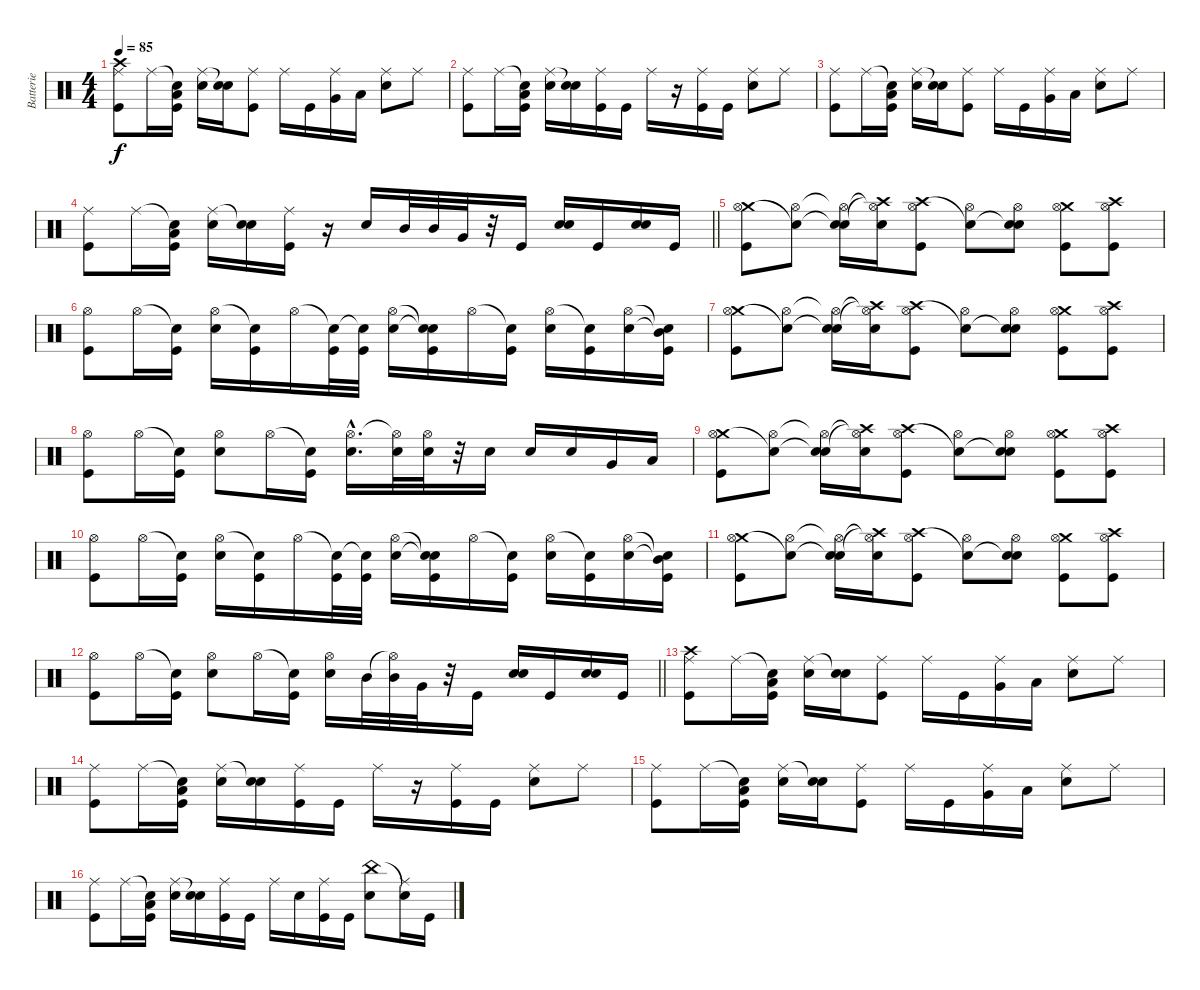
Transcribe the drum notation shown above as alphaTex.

\track ("Batterie" "Batterie") {instrument percussion}
\staff {score}
\articulation defaults
\ts (4 4)
\tempo 85
\clef neutral
\ks c
("Crash high (hit)" "Ride (middle)" "Kick (hit)").8{dy f} "Ride (middle)".16 ("Snare (hit)"{t} "Low Tom (hit)" "Kick (hit)").16 ("Ride (middle)" "Snare (hit) 2").16 ("Snare (hit)"{t} "Snare (hit) 2").16 ("Ride (middle)" "Kick (hit)").8 "Ride (middle)".16 "Kick (hit)".16 ("Ride (middle)" "Very Low Tom (hit)").16 "Low Tom (hit)".16 ("Ride (middle)" "Snare (hit) 2").8 "Ride (middle)".8 |
("Ride (middle)" "Kick (hit)").8 "Ride (middle)".16 ("Snare (hit)"{t} "Low Tom (hit)" "Kick (hit)").16 ("Ride (middle)" "Snare (hit) 2").16 ("Snare (hit)"{t} "Snare (hit) 2").16 ("Ride (middle)" "Kick (hit)").16 "Kick (hit)".16 "Ride (middle)".16 r.16 ("Ride (middle)" "Kick (hit)").16 "Kick (hit)".16 ("Ride (middle)" "Snare (hit) 2").8 "Ride (middle)".8 |
("Ride (middle)" "Kick (hit)").8 "Ride (middle)".16 ("Snare (hit)"{t} "Low Tom (hit)" "Kick (hit)").16 ("Ride (middle)" "Snare (hit) 2").16 ("Snare (hit)"{t} "Snare (hit) 2").16 ("Ride (middle)" "Kick (hit)").8 "Ride (middle)".16 "Kick (hit)".16 ("Ride (middle)" "Very Low Tom (hit)").16 "Low Tom (hit)".16 ("Ride (middle)" "Snare (hit) 2").8 "Ride (middle)".8 |
\barLineRight lightlight
("Ride (middle)" "Kick (hit)").8 "Ride (middle)".16 ("Snare (hit)"{t} "Low Tom (hit)" "Kick (hit)").16 ("Ride (middle)" "Snare (hit) 2").16 ("Snare (hit)"{t} "Snare (hit) 2").16 ("Ride (middle)" "Kick (hit)").16 r.16 "Snare (hit) 2".16 "Mid Tom (hit)".32 "Mid Tom (hit)".32 "Very Low Tom (hit)".32 r.32 "Kick (hit)".16 ("Snare (hit) 2" "Snare (hit) 2").16 "Kick (hit)".16 ("Snare (hit) 2" "Snare (hit) 2").16 "Kick (hit)".16 |
("Crash medium (hit)" "Hi-Hat (open)" "Kick (hit)").8 ("Snare (hit)"{t} "Hi-Hat (open)").8 ("Snare (hit)"{t} "Hi-Hat (open)"{t} "Snare (hit) 2").16 ("Crash high (hit)"{t} "Hi-Hat (open)"{t} "Snare (hit) 2").16 ("Crash high (hit)" "Hi-Hat (open)" "Kick (hit)").8 ("Snare (hit)"{t} "Hi-Hat (open)").8 ("Snare (hit)"{t} "Hi-Hat (open)" "Snare (hit) 2").8 ("Crash medium (hit)" "Hi-Hat (open)" "Kick (hit)").8 ("Crash high (hit)" "Hi-Hat (open)" "Kick (hit)").8 |
("Hi-Hat (open)" "Kick (hit)").8 "Hi-Hat (open)".16 ("Snare (hit)"{t} "Kick (hit)").16 ("Hi-Hat (open)" "Snare (hit) 2").16 ("Snare (hit)"{t} "Kick (hit)").16 "Hi-Hat (open)".16 ("Snare (hit)"{t} "Kick (hit)").32 ("Snare (hit)"{t} "Kick (hit)").32 ("Hi-Hat (open)" "Snare (hit) 2").16 ("Snare (hit)"{t} "Snare (hit)"{t} "Kick (hit)").16 "Hi-Hat (open)".16 ("Snare (hit)"{t} "Kick (hit)").16 ("Hi-Hat (open)" "Snare (hit) 2").16 ("Snare (hit)"{t} "Kick (hit)").16 ("Hi-Hat (open)" "Snare (hit) 2").16 ("Snare (hit)"{t} "Mid Tom (hit)"{t} "Kick (hit)").16 |
("Crash medium (hit)" "Hi-Hat (open)" "Kick (hit)").8 ("Snare (hit)"{t} "Hi-Hat (open)").8 ("Snare (hit)"{t} "Hi-Hat (open)"{t} "Snare (hit) 2").16 ("Crash high (hit)"{t} "Hi-Hat (open)"{t} "Snare (hit) 2").16 ("Crash high (hit)" "Hi-Hat (open)" "Kick (hit)").8 ("Snare (hit)"{t} "Hi-Hat (open)").8 ("Snare (hit)"{t} "Hi-Hat (open)" "Snare (hit) 2").8 ("Crash medium (hit)" "Hi-Hat (open)" "Kick (hit)").8 ("Crash high (hit)" "Hi-Hat (open)" "Kick (hit)").8 |
("Hi-Hat (open)" "Kick (hit)").8 "Hi-Hat (open)".16 ("Snare (hit)"{t} "Kick (hit)").16 ("Hi-Hat (open)" "Snare (hit) 2").8 "Hi-Hat (open)".16 ("Snare (hit)"{t} "Kick (hit)").16 ("Hi-Hat (open)"{hac} "Snare (hit) 2"{hac}).16{d} ("Hi-Hat (open)"{t} "Snare (hit) 2").32 ("Hi-Hat (open)" "Snare (hit) 2").32 r.32 "Snare (hit) 2".16 "Snare (hit) 2".16 "Snare (hit) 2".16 "Very Low Tom (hit)".16 "Low Floor Tom (hit)".16 |
("Crash medium (hit)" "Hi-Hat (open)" "Kick (hit)").8 ("Snare (hit)"{t} "Hi-Hat (open)").8 ("Snare (hit)"{t} "Hi-Hat (open)"{t} "Snare (hit) 2").16 ("Crash high (hit)"{t} "Hi-Hat (open)"{t} "Snare (hit) 2").16 ("Crash high (hit)" "Hi-Hat (open)" "Kick (hit)").8 ("Snare (hit)"{t} "Hi-Hat (open)").8 ("Snare (hit)"{t} "Hi-Hat (open)" "Snare (hit) 2").8 ("Crash medium (hit)" "Hi-Hat (open)" "Kick (hit)").8 ("Crash high (hit)" "Hi-Hat (open)" "Kick (hit)").8 |
("Hi-Hat (open)" "Kick (hit)").8 "Hi-Hat (open)".16 ("Snare (hit)"{t} "Kick (hit)").16 ("Hi-Hat (open)" "Snare (hit) 2").16 ("Snare (hit)"{t} "Kick (hit)").16 "Hi-Hat (open)".16 ("Snare (hit)"{t} "Kick (hit)").32 ("Snare (hit)"{t} "Kick (hit)").32 ("Hi-Hat (open)" "Snare (hit) 2").16 ("Snare (hit)"{t} "Snare (hit)"{t} "Kick (hit)").16 "Hi-Hat (open)".16 ("Snare (hit)"{t} "Kick (hit)").16 ("Hi-Hat (open)" "Snare (hit) 2").16 ("Snare (hit)"{t} "Kick (hit)").16 ("Hi-Hat (open)" "Snare (hit) 2").16 ("Snare (hit)"{t} "Mid Tom (hit)"{t} "Kick (hit)").16 |
("Crash medium (hit)" "Hi-Hat (open)" "Kick (hit)").8 ("Snare (hit)"{t} "Hi-Hat (open)").8 ("Snare (hit)"{t} "Hi-Hat (open)"{t} "Snare (hit) 2").16 ("Crash high (hit)"{t} "Hi-Hat (open)"{t} "Snare (hit) 2").16 ("Crash high (hit)" "Hi-Hat (open)" "Kick (hit)").8 ("Snare (hit)"{t} "Hi-Hat (open)").8 ("Snare (hit)"{t} "Hi-Hat (open)" "Snare (hit) 2").8 ("Crash medium (hit)" "Hi-Hat (open)" "Kick (hit)").8 ("Crash high (hit)" "Hi-Hat (open)" "Kick (hit)").8 |
\barLineRight lightlight
("Hi-Hat (open)" "Kick (hit)").8 "Hi-Hat (open)".16 ("Snare (hit)"{t} "Kick (hit)").16 ("Hi-Hat (open)" "Snare (hit) 2").8 "Hi-Hat (open)".16 ("Snare (hit)"{t} "Kick (hit)").16 ("Hi-Hat (open)" "Snare (hit) 2").16 "Mid Tom (hit)".32 ("Hi-Hat (open)"{t} "Mid Tom (hit)").32 "Very Low Tom (hit)".32 r.32 "Kick (hit)".16 ("Snare (hit) 2" "Snare (hit) 2").16 "Kick (hit)".16 ("Snare (hit) 2" "Snare (hit) 2").16 "Kick (hit)".16 |
("Crash high (hit)" "Ride (middle)" "Kick (hit)").8 "Ride (middle)".16 ("Snare (hit)"{t} "Low Tom (hit)" "Kick (hit)").16 ("Ride (middle)" "Snare (hit) 2").16 ("Snare (hit)"{t} "Snare (hit) 2").16 ("Ride (middle)" "Kick (hit)").8 "Ride (middle)".16 "Kick (hit)".16 ("Ride (middle)" "Very Low Tom (hit)").16 "Low Tom (hit)".16 ("Ride (middle)" "Snare (hit) 2").8 "Ride (middle)".8 |
("Ride (middle)" "Kick (hit)").8 "Ride (middle)".16 ("Snare (hit)"{t} "Low Tom (hit)" "Kick (hit)").16 ("Ride (middle)" "Snare (hit) 2").16 ("Snare (hit)"{t} "Snare (hit) 2").16 ("Ride (middle)" "Kick (hit)").16 "Kick (hit)".16 "Ride (middle)".16 r.16 ("Ride (middle)" "Kick (hit)").16 "Kick (hit)".16 ("Ride (middle)" "Snare (hit) 2").8 "Ride (middle)".8 |
("Ride (middle)" "Kick (hit)").8 "Ride (middle)".16 ("Snare (hit)"{t} "Low Tom (hit)" "Kick (hit)").16 ("Ride (middle)" "Snare (hit) 2").16 ("Snare (hit)"{t} "Snare (hit) 2").16 ("Ride (middle)" "Kick (hit)").8 "Ride (middle)".16 "Kick (hit)".16 ("Ride (middle)" "Very Low Tom (hit)").16 "Low Tom (hit)".16 ("Ride (middle)" "Snare (hit) 2").8 "Ride (middle)".8 |
("Ride (middle)" "Kick (hit)").8 "Ride (middle)".16 ("Snare (hit)"{t} "Low Tom (hit)" "Kick (hit)").16 ("Ride (middle)" "Snare (hit) 2").16 ("Snare (hit)"{t} "Snare (hit) 2").16 ("Ride (middle)" "Kick (hit)").16 "Kick (hit)".16 "Ride (middle)".16 "Snare (hit) 2".16 ("Ride (middle)" "Kick (hit)").16 "Kick (hit)".16 ("China (hit)" "Snare (hit) 2").8 ("Snare (hit)"{t} "Ride (middle)").16 "Kick (hit)".16
